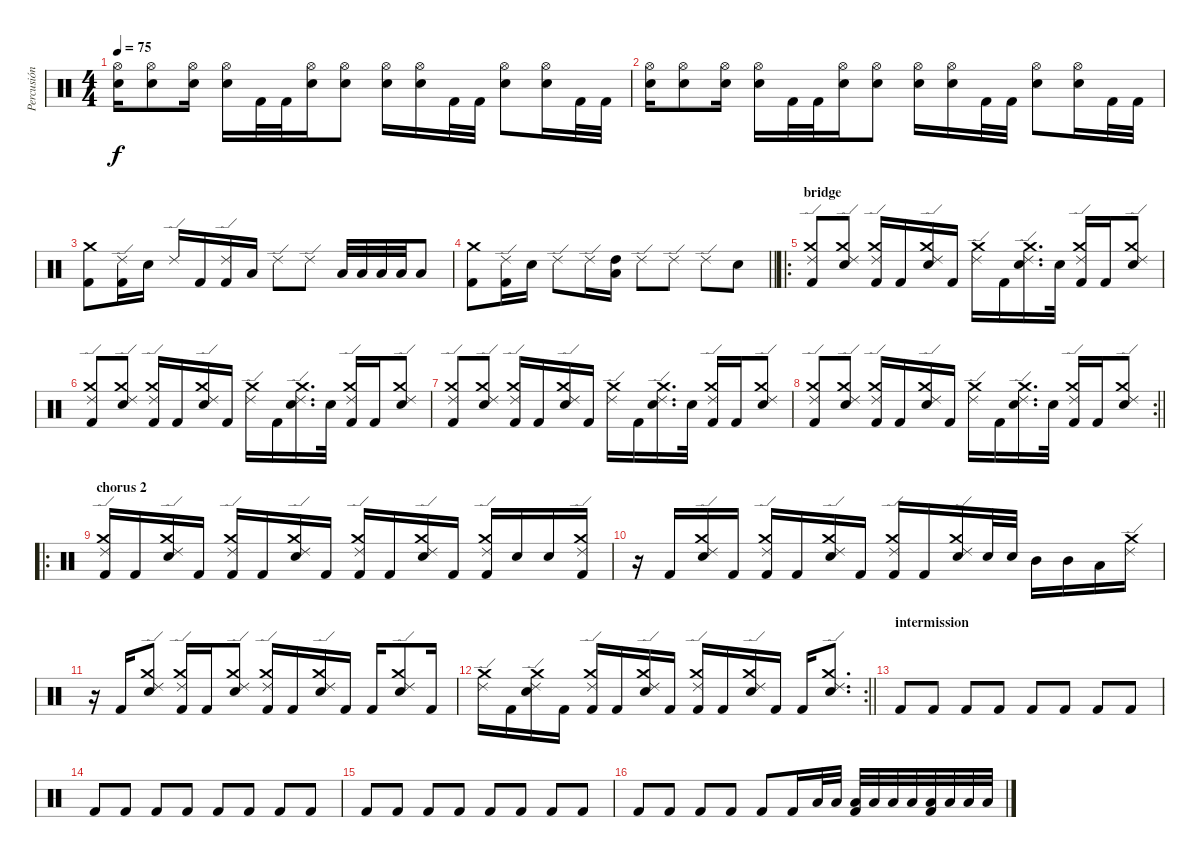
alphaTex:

\track ("Percusión" "Percusión") {instrument percussion}
\staff {score}
\articulation defaults
\ts (4 4)
\tempo 75
\clef neutral
\ks c
("Electric Snare (hit)" "Hi-Hat (open)").16{dy f} ("Electric Snare (hit)" "Hi-Hat (open)").8 ("Electric Snare (hit)" "Hi-Hat (open)").16 ("Electric Snare (hit)" "Hi-Hat (open)").16 "Kick (hit) 2".32 "Kick (hit) 2".32 ("Electric Snare (hit)" "Hi-Hat (open)").16 ("Electric Snare (hit)" "Hi-Hat (open)").8 ("Electric Snare (hit)" "Hi-Hat (open)").16 ("Electric Snare (hit)" "Hi-Hat (open)").16 "Kick (hit) 2".32 "Kick (hit) 2".32 ("Electric Snare (hit)" "Hi-Hat (open)").8 ("Electric Snare (hit)" "Hi-Hat (open)").16 "Kick (hit) 2".32 "Kick (hit) 2".32 |
("Electric Snare (hit)" "Hi-Hat (open)").16 ("Electric Snare (hit)" "Hi-Hat (open)").8 ("Electric Snare (hit)" "Hi-Hat (open)").16 ("Electric Snare (hit)" "Hi-Hat (open)").16 "Kick (hit) 2".32 "Kick (hit) 2".32 ("Electric Snare (hit)" "Hi-Hat (open)").16 ("Electric Snare (hit)" "Hi-Hat (open)").8 ("Electric Snare (hit)" "Hi-Hat (open)").16 ("Electric Snare (hit)" "Hi-Hat (open)").16 "Kick (hit) 2".32 "Kick (hit) 2".32 ("Electric Snare (hit)" "Hi-Hat (open)").8 ("Electric Snare (hit)" "Hi-Hat (open)").16 "Kick (hit) 2".32 "Kick (hit) 2".32 |
("Kick (hit) 2" "Crash medium (hit)").8 ("Kick (hit) 2" "Ride (edge) 2").16 "Electric Snare (hit)".16 "Ride (edge) 2".16 "Kick (hit) 2".16 ("Kick (hit) 2" "Ride (edge) 2").16 "Low Tom (hit)".16 "Ride (edge) 2".8 "Ride (edge) 2".8 "Low Tom (hit)".32 "Low Tom (hit)".32 "Low Tom (hit)".32 "Low Tom (hit)".32 "Low Tom (hit)".8 |
\barLineRight lightlight
("Kick (hit) 2" "Crash medium (hit)").8 ("Kick (hit) 2" "Ride (edge) 2").16 "Electric Snare (hit)".16 "Ride (edge) 2".8 "Ride (edge) 2".16 ("High Tom (hit)" "Low Tom (hit)").16 "Ride (edge) 2".8 "Ride (edge) 2".8 "Ride (edge) 2".8 "Electric Snare (hit)".8 |
\ro
\section ("" "bridge")
("Kick (hit) 2" "Ride (edge) 2" "Crash medium (hit)").8 ("Electric Snare (hit)" "Ride (edge) 2" "Crash medium (hit)").8 ("Kick (hit) 2" "Ride (edge) 2" "Crash medium (hit)").16 "Kick (hit) 2".16 ("Electric Snare (hit)" "Ride (edge) 2" "Crash medium (hit)").16 "Kick (hit) 2".16 ("Ride (edge) 2" "Crash medium (hit)").16 "Kick (hit) 2".16 ("Electric Snare (hit)" "Ride (edge) 2" "Crash medium (hit)").16{d} "Electric Snare (hit)".32 ("Kick (hit) 2" "Ride (edge) 2" "Crash medium (hit)").16 "Kick (hit) 2".16 ("Electric Snare (hit)" "Ride (edge) 2" "Crash medium (hit)").8 |
("Kick (hit) 2" "Ride (edge) 2" "Crash medium (hit)").8 ("Electric Snare (hit)" "Ride (edge) 2" "Crash medium (hit)").8 ("Kick (hit) 2" "Ride (edge) 2" "Crash medium (hit)").16 "Kick (hit) 2".16 ("Electric Snare (hit)" "Ride (edge) 2" "Crash medium (hit)").16 "Kick (hit) 2".16 ("Ride (edge) 2" "Crash medium (hit)").16 "Kick (hit) 2".16 ("Electric Snare (hit)" "Ride (edge) 2" "Crash medium (hit)").16{d} "Electric Snare (hit)".32 ("Kick (hit) 2" "Ride (edge) 2" "Crash medium (hit)").16 "Kick (hit) 2".16 ("Electric Snare (hit)" "Ride (edge) 2" "Crash medium (hit)").8 |
("Kick (hit) 2" "Ride (edge) 2" "Crash medium (hit)").8 ("Electric Snare (hit)" "Ride (edge) 2" "Crash medium (hit)").8 ("Kick (hit) 2" "Ride (edge) 2" "Crash medium (hit)").16 "Kick (hit) 2".16 ("Electric Snare (hit)" "Ride (edge) 2" "Crash medium (hit)").16 "Kick (hit) 2".16 ("Ride (edge) 2" "Crash medium (hit)").16 "Kick (hit) 2".16 ("Electric Snare (hit)" "Ride (edge) 2" "Crash medium (hit)").16{d} "Electric Snare (hit)".32 ("Kick (hit) 2" "Ride (edge) 2" "Crash medium (hit)").16 "Kick (hit) 2".16 ("Electric Snare (hit)" "Ride (edge) 2" "Crash medium (hit)").8 |
\rc 2
\barLineRight lightlight
("Kick (hit) 2" "Ride (edge) 2" "Crash medium (hit)").8 ("Electric Snare (hit)" "Ride (edge) 2" "Crash medium (hit)").8 ("Kick (hit) 2" "Ride (edge) 2" "Crash medium (hit)").16 "Kick (hit) 2".16 ("Electric Snare (hit)" "Ride (edge) 2" "Crash medium (hit)").16 "Kick (hit) 2".16 ("Ride (edge) 2" "Crash medium (hit)").16 "Kick (hit) 2".16 ("Electric Snare (hit)" "Ride (edge) 2" "Crash medium (hit)").16{d} "Electric Snare (hit)".32 ("Kick (hit) 2" "Ride (edge) 2" "Crash medium (hit)").16 "Kick (hit) 2".16 ("Electric Snare (hit)" "Ride (edge) 2" "Crash medium (hit)").8 |
\ro
\section ("" "chorus 2")
("Kick (hit) 2" "Ride (edge) 2" "Crash medium (hit)").16 "Kick (hit) 2".16 ("Electric Snare (hit)" "Ride (edge) 2" "Crash medium (hit)").16 "Kick (hit) 2".16 ("Kick (hit) 2" "Ride (edge) 2" "Crash medium (hit)").16 "Kick (hit) 2".16 ("Electric Snare (hit)" "Ride (edge) 2" "Crash medium (hit)").16 "Kick (hit) 2".16 ("Kick (hit) 2" "Ride (edge) 2" "Crash medium (hit)").16 "Kick (hit) 2".16 ("Electric Snare (hit)" "Ride (edge) 2" "Crash medium (hit)").16 "Kick (hit) 2".16 ("Kick (hit) 2" "Ride (edge) 2" "Crash medium (hit)").16 "Electric Snare (hit)".16 "Electric Snare (hit)".16 ("Kick (hit) 2" "Crash medium (hit)" "Ride (edge) 2").16 |
r.16 "Kick (hit) 2".16 ("Electric Snare (hit)" "Ride (edge) 2" "Crash medium (hit)").16 "Kick (hit) 2".16 ("Kick (hit) 2" "Ride (edge) 2" "Crash medium (hit)").16 "Kick (hit) 2".16 ("Electric Snare (hit)" "Ride (edge) 2" "Crash medium (hit)").16 "Kick (hit) 2".16 ("Kick (hit) 2" "Ride (edge) 2" "Crash medium (hit)").16 "Kick (hit) 2".16 ("Electric Snare (hit)" "Ride (edge) 2" "Crash medium (hit)").16 "Electric Snare (hit)".32 "Electric Snare (hit)".32 "Mid Tom (hit)".16 "Mid Tom (hit)".16 "Low Tom (hit)".16 ("Ride (edge) 2" "Crash medium (hit)").16 |
r.16 "Kick (hit) 2".16 ("Electric Snare (hit)" "Ride (edge) 2" "Crash medium (hit)").8 ("Kick (hit) 2" "Ride (edge) 2" "Crash medium (hit)").16 "Kick (hit) 2".16 ("Electric Snare (hit)" "Ride (edge) 2" "Crash medium (hit)").8 ("Kick (hit) 2" "Ride (edge) 2" "Crash medium (hit)").16 "Kick (hit) 2".16 ("Electric Snare (hit)" "Ride (edge) 2" "Crash medium (hit)").16 "Kick (hit) 2".16 "Kick (hit) 2".16 ("Electric Snare (hit)" "Ride (edge) 2" "Crash medium (hit)").8 "Kick (hit) 2".16 |
\rc 2
\barLineRight lightlight
("Ride (edge) 2" "Crash medium (hit)").16 "Kick (hit) 2".16 ("Electric Snare (hit)" "Ride (edge) 2" "Crash medium (hit)").16 "Kick (hit) 2".16 ("Kick (hit) 2" "Crash medium (hit)" "Ride (edge) 2").16 "Kick (hit) 2".16 ("Electric Snare (hit)" "Ride (edge) 2" "Crash medium (hit)").16 "Kick (hit) 2".16 ("Kick (hit) 2" "Ride (edge) 2" "Crash medium (hit)").16 "Kick (hit) 2".16 ("Electric Snare (hit)" "Ride (edge) 2" "Crash medium (hit)").16 "Kick (hit) 2".16 "Kick (hit) 2".16 ("Electric Snare (hit)" "Ride (edge) 2" "Crash medium (hit)").8{d} |
\section ("" "intermission")
"Kick (hit) 2".8 "Kick (hit) 2".8 "Kick (hit) 2".8 "Kick (hit) 2".8 "Kick (hit) 2".8 "Kick (hit) 2".8 "Kick (hit) 2".8 "Kick (hit) 2".8 |
"Kick (hit) 2".8 "Kick (hit) 2".8 "Kick (hit) 2".8 "Kick (hit) 2".8 "Kick (hit) 2".8 "Kick (hit) 2".8 "Kick (hit) 2".8 "Kick (hit) 2".8 |
"Kick (hit) 2".8 "Kick (hit) 2".8 "Kick (hit) 2".8 "Kick (hit) 2".8 "Kick (hit) 2".8 "Kick (hit) 2".8 "Kick (hit) 2".8 "Kick (hit) 2".8 |
"Kick (hit) 2".8 "Kick (hit) 2".8 "Kick (hit) 2".8 "Kick (hit) 2".8 "Kick (hit) 2".8 "Kick (hit) 2".16 "Low Tom (hit)".32 "Low Tom (hit)".32 ("Kick (hit) 2" "Low Tom (hit)").32 "Low Tom (hit)".32 "Low Tom (hit)".32 "Low Tom (hit)".32 ("Kick (hit) 2" "Low Tom (hit)").32 "Low Tom (hit)".32 "Low Tom (hit)".32 "Low Tom (hit)".32
